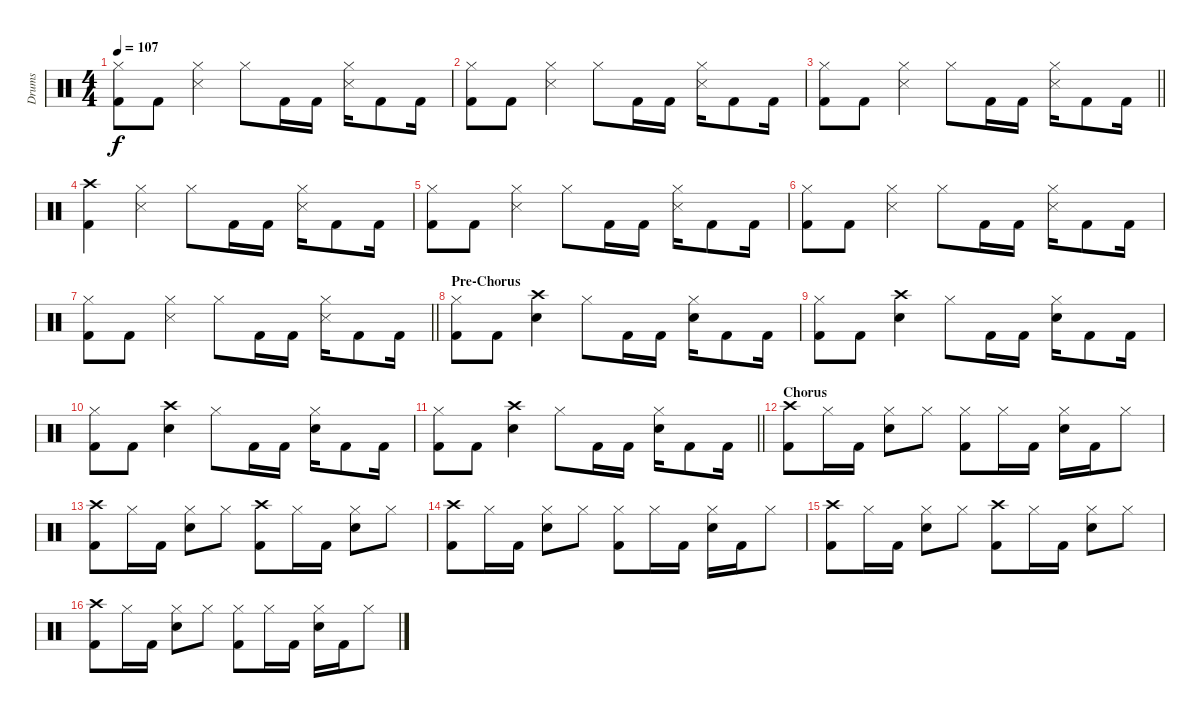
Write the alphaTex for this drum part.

\track ("Drums " "Drums ") {instrument percussion}
\staff {score}
\articulation defaults
\ts (4 4)
\tempo 107
\clef neutral
\ks c
("Hi-Hat (closed)" "Kick (hit) 2").8{dy f} "Kick (hit) 2".8 ("Hi-Hat (closed)" "Snare (side stick) 3").4 "Hi-Hat (closed)".8 "Kick (hit) 2".16 "Kick (hit) 2".16 ("Hi-Hat (closed)" "Snare (side stick) 3").16 "Kick (hit) 2".8 "Kick (hit) 2".16 |
("Hi-Hat (closed)" "Kick (hit) 2").8 "Kick (hit) 2".8 ("Hi-Hat (closed)" "Snare (side stick) 3").4 "Hi-Hat (closed)".8 "Kick (hit) 2".16 "Kick (hit) 2".16 ("Hi-Hat (closed)" "Snare (side stick) 3").16 "Kick (hit) 2".8 "Kick (hit) 2".16 |
\barLineRight lightlight
("Hi-Hat (closed)" "Kick (hit) 2").8 "Kick (hit) 2".8 ("Hi-Hat (closed)" "Snare (side stick) 3").4 "Hi-Hat (closed)".8 "Kick (hit) 2".16 "Kick (hit) 2".16 ("Hi-Hat (closed)" "Snare (side stick) 3").16 "Kick (hit) 2".8 "Kick (hit) 2".16 |
("Crash high (hit)" "Kick (hit) 2").4 ("Hi-Hat (closed)" "Snare (side stick) 3").4 "Hi-Hat (closed)".8 "Kick (hit) 2".16 "Kick (hit) 2".16 ("Hi-Hat (closed)" "Snare (side stick) 3").16 "Kick (hit) 2".8 "Kick (hit) 2".16 |
("Hi-Hat (closed)" "Kick (hit) 2").8 "Kick (hit) 2".8 ("Hi-Hat (closed)" "Snare (side stick) 3").4 "Hi-Hat (closed)".8 "Kick (hit) 2".16 "Kick (hit) 2".16 ("Hi-Hat (closed)" "Snare (side stick) 3").16 "Kick (hit) 2".8 "Kick (hit) 2".16 |
("Hi-Hat (closed)" "Kick (hit) 2").8 "Kick (hit) 2".8 ("Hi-Hat (closed)" "Snare (side stick) 3").4 "Hi-Hat (closed)".8 "Kick (hit) 2".16 "Kick (hit) 2".16 ("Hi-Hat (closed)" "Snare (side stick) 3").16 "Kick (hit) 2".8 "Kick (hit) 2".16 |
\barLineRight lightlight
("Hi-Hat (closed)" "Kick (hit) 2").8 "Kick (hit) 2".8 ("Hi-Hat (closed)" "Snare (side stick) 3").4 "Hi-Hat (closed)".8 "Kick (hit) 2".16 "Kick (hit) 2".16 ("Hi-Hat (closed)" "Snare (side stick) 3").16 "Kick (hit) 2".8 "Kick (hit) 2".16 |
\section ("" "Pre-Chorus")
("Hi-Hat (closed)" "Kick (hit) 2").8 "Kick (hit) 2".8 ("Crash high (hit)" "Electric Snare (hit)").4 "Hi-Hat (closed)".8 "Kick (hit) 2".16 "Kick (hit) 2".16 ("Hi-Hat (closed)" "Electric Snare (hit)").16 "Kick (hit) 2".8 "Kick (hit) 2".16 |
("Hi-Hat (closed)" "Kick (hit) 2").8 "Kick (hit) 2".8 ("Crash high (hit)" "Electric Snare (hit)").4 "Hi-Hat (closed)".8 "Kick (hit) 2".16 "Kick (hit) 2".16 ("Hi-Hat (closed)" "Electric Snare (hit)").16 "Kick (hit) 2".8 "Kick (hit) 2".16 |
("Hi-Hat (closed)" "Kick (hit) 2").8 "Kick (hit) 2".8 ("Crash high (hit)" "Electric Snare (hit)").4 "Hi-Hat (closed)".8 "Kick (hit) 2".16 "Kick (hit) 2".16 ("Hi-Hat (closed)" "Electric Snare (hit)").16 "Kick (hit) 2".8 "Kick (hit) 2".16 |
\barLineRight lightlight
("Hi-Hat (closed)" "Kick (hit) 2").8 "Kick (hit) 2".8 ("Crash high (hit)" "Electric Snare (hit)").4 "Hi-Hat (closed)".8 "Kick (hit) 2".16 "Kick (hit) 2".16 ("Hi-Hat (closed)" "Electric Snare (hit)").16 "Kick (hit) 2".8 "Kick (hit) 2".16 |
\section ("" "Chorus")
("Crash high (hit)" "Kick (hit) 2").8 "Hi-Hat (closed)".16 "Kick (hit) 2".16 ("Hi-Hat (closed)" "Electric Snare (hit)").8 "Hi-Hat (closed)".8 ("Hi-Hat (closed)" "Kick (hit) 2").8 "Hi-Hat (closed)".16 "Kick (hit) 2".16 ("Hi-Hat (closed)" "Electric Snare (hit)").16 "Kick (hit) 2".16 "Hi-Hat (closed)".8 |
("Crash high (hit)" "Kick (hit) 2").8 "Hi-Hat (closed)".16 "Kick (hit) 2".16 ("Hi-Hat (closed)" "Electric Snare (hit)").8 "Hi-Hat (closed)".8 ("Crash high (hit)" "Kick (hit) 2").8 "Hi-Hat (closed)".16 "Kick (hit) 2".16 ("Hi-Hat (closed)" "Electric Snare (hit)").8 "Hi-Hat (closed)".8 |
("Crash high (hit)" "Kick (hit) 2").8 "Hi-Hat (closed)".16 "Kick (hit) 2".16 ("Hi-Hat (closed)" "Electric Snare (hit)").8 "Hi-Hat (closed)".8 ("Hi-Hat (closed)" "Kick (hit) 2").8 "Hi-Hat (closed)".16 "Kick (hit) 2".16 ("Hi-Hat (closed)" "Electric Snare (hit)").16 "Kick (hit) 2".16 "Hi-Hat (closed)".8 |
("Crash high (hit)" "Kick (hit) 2").8 "Hi-Hat (closed)".16 "Kick (hit) 2".16 ("Hi-Hat (closed)" "Electric Snare (hit)").8 "Hi-Hat (closed)".8 ("Crash high (hit)" "Kick (hit) 2").8 "Hi-Hat (closed)".16 "Kick (hit) 2".16 ("Hi-Hat (closed)" "Electric Snare (hit)").8 "Hi-Hat (closed)".8 |
("Crash high (hit)" "Kick (hit) 2").8 "Hi-Hat (closed)".16 "Kick (hit) 2".16 ("Hi-Hat (closed)" "Electric Snare (hit)").8 "Hi-Hat (closed)".8 ("Hi-Hat (closed)" "Kick (hit) 2").8 "Hi-Hat (closed)".16 "Kick (hit) 2".16 ("Hi-Hat (closed)" "Electric Snare (hit)").16 "Kick (hit) 2".16 "Hi-Hat (closed)".8
